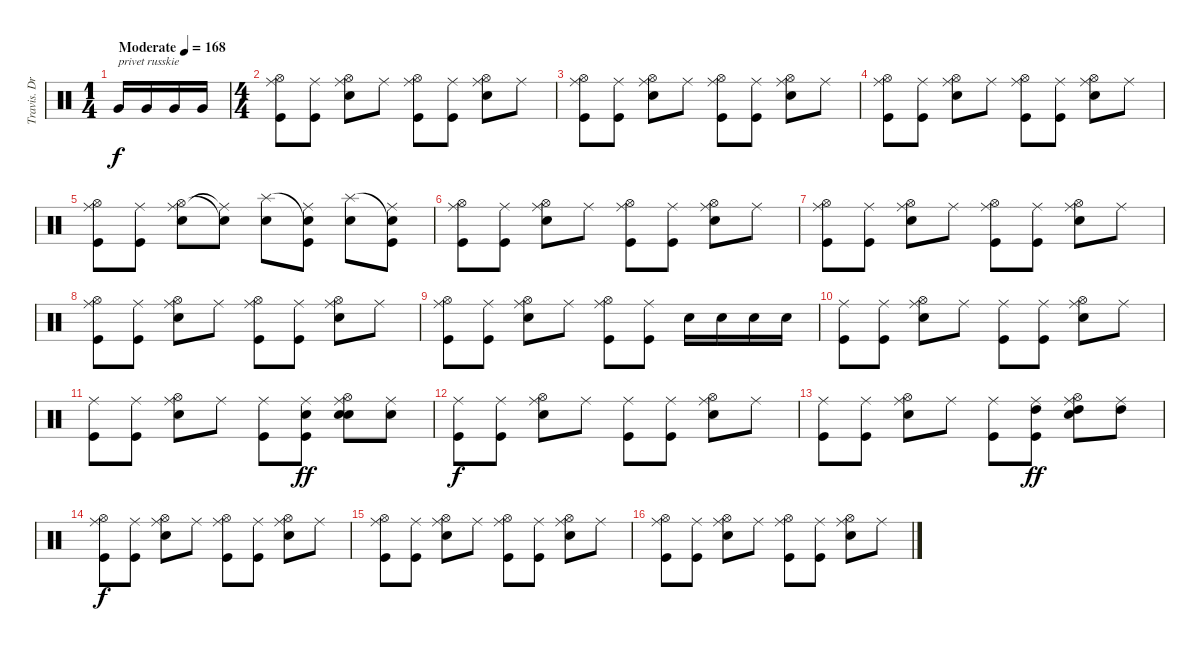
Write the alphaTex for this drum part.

\track ("Travis. Drums" "Travis. Dr") {instrument percussion}
\staff {score}
\articulation defaults
\ts (1 4)
\tempo (168 "Moderate")
\clef neutral
\ks c "Very Low Tom (hit)".16{txt "privet russkie" dy f} "Very Low Tom (hit)".16 "Very Low Tom (hit)".16 "Very Low Tom (hit)".16
|
\ts (4 4)
("Hi-Hat (open)" "Ride (middle)" "Kick (hit)").8 ("Ride (middle)" "Kick (hit)").8 ("Hi-Hat (open)" "Ride (middle)" "Snare (hit) 2").8 "Ride (middle)".8 ("Hi-Hat (open)" "Ride (middle)" "Kick (hit)").8 ("Ride (middle)" "Kick (hit)").8 ("Hi-Hat (open)" "Ride (middle)" "Snare (hit) 2").8 "Ride (middle)".8 |
("Hi-Hat (open)" "Ride (middle)" "Kick (hit)").8 ("Ride (middle)" "Kick (hit)").8 ("Hi-Hat (open)" "Ride (middle)" "Snare (hit) 2").8 "Ride (middle)".8 ("Hi-Hat (open)" "Ride (middle)" "Kick (hit)").8 ("Ride (middle)" "Kick (hit)").8 ("Hi-Hat (open)" "Ride (middle)" "Snare (hit) 2").8 "Ride (middle)".8 |
("Hi-Hat (open)" "Ride (middle)" "Kick (hit)").8 ("Ride (middle)" "Kick (hit)").8 ("Hi-Hat (open)" "Ride (middle)" "Snare (hit) 2").8 "Ride (middle)".8 ("Hi-Hat (open)" "Ride (middle)" "Kick (hit)").8 ("Ride (middle)" "Kick (hit)").8 ("Hi-Hat (open)" "Ride (middle)" "Snare (hit) 2").8 "Ride (middle)".8 |
("Hi-Hat (open)" "Ride (middle)" "Kick (hit)").8 ("Ride (middle)" "Kick (hit)").8 ("Hi-Hat (open)" "Ride (middle)" "Snare (hit) 2").8 ("Snare (hit)"{t} "Ride (middle)"{t}).8 ("Splash (hit)" "Snare (hit) 2").8 ("Snare (hit)"{t} "Ride (middle)" "Kick (hit)").8 ("Splash (hit)" "Snare (hit) 2").8 ("Snare (hit)"{t} "Ride (middle)" "Kick (hit)").8 |
("Hi-Hat (open)" "Ride (middle)" "Kick (hit)").8 ("Ride (middle)" "Kick (hit)").8 ("Hi-Hat (open)" "Ride (middle)" "Snare (hit) 2").8 "Ride (middle)".8 ("Hi-Hat (open)" "Ride (middle)" "Kick (hit)").8 ("Ride (middle)" "Kick (hit)").8 ("Hi-Hat (open)" "Ride (middle)" "Snare (hit) 2").8 "Ride (middle)".8 |
("Hi-Hat (open)" "Ride (middle)" "Kick (hit)").8 ("Ride (middle)" "Kick (hit)").8 ("Hi-Hat (open)" "Ride (middle)" "Snare (hit) 2").8 "Ride (middle)".8 ("Hi-Hat (open)" "Ride (middle)" "Kick (hit)").8 ("Ride (middle)" "Kick (hit)").8 ("Hi-Hat (open)" "Ride (middle)" "Snare (hit) 2").8 "Ride (middle)".8 |
("Hi-Hat (open)" "Ride (middle)" "Kick (hit)").8 ("Ride (middle)" "Kick (hit)").8 ("Hi-Hat (open)" "Ride (middle)" "Snare (hit) 2").8 "Ride (middle)".8 ("Hi-Hat (open)" "Ride (middle)" "Kick (hit)").8 ("Ride (middle)" "Kick (hit)").8 ("Hi-Hat (open)" "Ride (middle)" "Snare (hit) 2").8 "Ride (middle)".8 |
("Hi-Hat (open)" "Ride (middle)" "Kick (hit)").8 ("Ride (middle)" "Kick (hit)").8 ("Hi-Hat (open)" "Ride (middle)" "Snare (hit) 2").8 "Ride (middle)".8 ("Hi-Hat (open)" "Ride (middle)" "Kick (hit)").8 ("Ride (middle)" "Kick (hit)").8 "Snare (hit) 2".16 "Snare (hit) 2".16 "Snare (hit) 2".16 "Snare (hit) 2".16 |
("Ride (middle)" "Kick (hit)").8 ("Ride (middle)" "Kick (hit)").8 ("Hi-Hat (open)" "Ride (middle)" "Snare (hit) 2").8 "Ride (middle)".8 ("Ride (middle)" "Kick (hit)").8 ("Ride (middle)" "Kick (hit)").8 ("Hi-Hat (open)" "Ride (middle)" "Snare (hit) 2").8 "Ride (middle)".8 |
("Ride (middle)" "Kick (hit)").8 ("Ride (middle)" "Kick (hit)").8 ("Hi-Hat (open)" "Ride (middle)" "Snare (hit) 2").8 "Ride (middle)".8 ("Ride (middle)" "Kick (hit)").8 ("Ride (middle)" "Hand Clap (hit)" "Kick (hit)").8{dy ff} ("Hi-Hat (open)" "Ride (middle)" "Hand Clap (hit)" "Snare (hit) 2").8 ("Ride (middle)" "Hand Clap (hit)").8 |
("Ride (middle)" "Kick (hit)").8{dy f} ("Ride (middle)" "Kick (hit)").8 ("Hi-Hat (open)" "Ride (middle)" "Snare (hit) 2").8 "Ride (middle)".8 ("Ride (middle)" "Kick (hit)").8 ("Ride (middle)" "Kick (hit)").8 ("Hi-Hat (open)" "Ride (middle)" "Snare (hit) 2").8 "Ride (middle)".8 |
("Ride (middle)" "Kick (hit)").8 ("Ride (middle)" "Kick (hit)").8 ("Hi-Hat (open)" "Ride (middle)" "Snare (hit) 2").8 "Ride (middle)".8 ("Ride (middle)" "Kick (hit)").8 ("Ride (middle)" "High Tom (hit)" "Kick (hit)").8{dy ff} ("Hi-Hat (open)" "Ride (middle)" "High Tom (hit)" "Snare (hit) 2").8 ("Ride (middle)" "High Tom (hit)").8 |
("Hi-Hat (open)" "Ride (middle)" "Kick (hit)").8{dy f} ("Ride (middle)" "Kick (hit)").8 ("Hi-Hat (open)" "Ride (middle)" "Snare (hit) 2").8 "Ride (middle)".8 ("Hi-Hat (open)" "Ride (middle)" "Kick (hit)").8 ("Ride (middle)" "Kick (hit)").8 ("Hi-Hat (open)" "Ride (middle)" "Snare (hit) 2").8 "Ride (middle)".8 |
("Hi-Hat (open)" "Ride (middle)" "Kick (hit)").8 ("Ride (middle)" "Kick (hit)").8 ("Hi-Hat (open)" "Ride (middle)" "Snare (hit) 2").8 "Ride (middle)".8 ("Hi-Hat (open)" "Ride (middle)" "Kick (hit)").8 ("Ride (middle)" "Kick (hit)").8 ("Hi-Hat (open)" "Ride (middle)" "Snare (hit) 2").8 "Ride (middle)".8 |
("Hi-Hat (open)" "Ride (middle)" "Kick (hit)").8 ("Ride (middle)" "Kick (hit)").8 ("Hi-Hat (open)" "Ride (middle)" "Snare (hit) 2").8 "Ride (middle)".8 ("Hi-Hat (open)" "Ride (middle)" "Kick (hit)").8 ("Ride (middle)" "Kick (hit)").8 ("Hi-Hat (open)" "Ride (middle)" "Snare (hit) 2").8 "Ride (middle)".8
